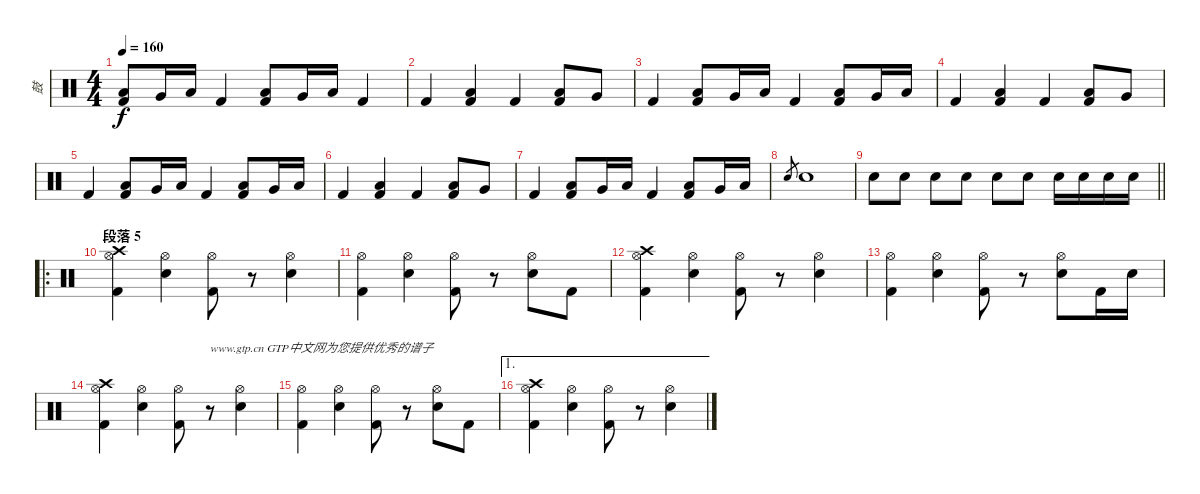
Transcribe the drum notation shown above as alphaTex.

\track ("鼓" "鼓") {instrument percussion}
\staff {score}
\articulation defaults
\ts (4 4)
\tempo 160
\clef neutral
\ks c
("Low Tom (hit)" "Kick (hit) 2").8{dy f} "Very Low Tom (hit)".16 "Low Tom (hit)".16 "Kick (hit) 2".4 ("Low Tom (hit)" "Kick (hit) 2").8 "Very Low Tom (hit)".16 "Low Tom (hit)".16 "Kick (hit) 2".4 |
"Kick (hit) 2".4 ("Low Tom (hit)" "Kick (hit) 2").4 "Kick (hit) 2".4 ("Low Tom (hit)" "Kick (hit) 2").8 "Very Low Tom (hit)".8 |
"Kick (hit) 2".4 ("Low Tom (hit)" "Kick (hit) 2").8 "Very Low Tom (hit)".16 "Low Tom (hit)".16 "Kick (hit) 2".4 ("Low Tom (hit)" "Kick (hit) 2").8 "Very Low Tom (hit)".16 "Low Tom (hit)".16 |
"Kick (hit) 2".4 ("Low Tom (hit)" "Kick (hit) 2").4 "Kick (hit) 2".4 ("Low Tom (hit)" "Kick (hit) 2").8 "Very Low Tom (hit)".8 |
"Kick (hit) 2".4 ("Low Tom (hit)" "Kick (hit) 2").8 "Very Low Tom (hit)".16 "Low Tom (hit)".16 "Kick (hit) 2".4 ("Low Tom (hit)" "Kick (hit) 2").8 "Very Low Tom (hit)".16 "Low Tom (hit)".16 |
"Kick (hit) 2".4 ("Low Tom (hit)" "Kick (hit) 2").4 "Kick (hit) 2".4 ("Low Tom (hit)" "Kick (hit) 2").8 "Very Low Tom (hit)".8 |
"Kick (hit) 2".4 ("Low Tom (hit)" "Kick (hit) 2").8 "Very Low Tom (hit)".16 "Low Tom (hit)".16 "Kick (hit) 2".4 ("Low Tom (hit)" "Kick (hit) 2").8 "Very Low Tom (hit)".16 "Low Tom (hit)".16 |
"Electric Snare (hit)".8{gr} "Electric Snare (hit)".1 |
\barLineRight lightlight "Electric Snare (hit)".8 "Electric Snare (hit)".8 "Electric Snare (hit)".8 "Electric Snare (hit)".8 "Electric Snare (hit)".8 "Electric Snare (hit)".8 "Electric Snare (hit)".16 "Electric Snare (hit)".16 "Electric Snare (hit)".16 "Electric Snare (hit)".16
|
\ro
\section ("" "段落 5")
("Crash high (hit)" "Hi-Hat (open)" "Kick (hit) 2").4 ("Hi-Hat (open)" "Electric Snare (hit)").4 ("Hi-Hat (open)" "Kick (hit) 2").8 r.8 ("Hi-Hat (open)" "Electric Snare (hit)").4 |
("Hi-Hat (open)" "Kick (hit) 2").4 ("Hi-Hat (open)" "Electric Snare (hit)").4 ("Hi-Hat (open)" "Kick (hit) 2").8 r.8 ("Hi-Hat (open)" "Electric Snare (hit)").8 "Kick (hit) 2".8 |
("Crash high (hit)" "Hi-Hat (open)" "Kick (hit) 2").4 ("Hi-Hat (open)" "Electric Snare (hit)").4 ("Hi-Hat (open)" "Kick (hit) 2").8 r.8 ("Hi-Hat (open)" "Electric Snare (hit)").4 |
("Hi-Hat (open)" "Kick (hit) 2").4 ("Hi-Hat (open)" "Electric Snare (hit)").4 ("Hi-Hat (open)" "Kick (hit) 2").8 r.8 ("Hi-Hat (open)" "Electric Snare (hit)").8 "Kick (hit) 2".16 "Electric Snare (hit)".16 |
("Crash high (hit)" "Hi-Hat (open)" "Kick (hit) 2").4 ("Hi-Hat (open)" "Electric Snare (hit)").4 ("Hi-Hat (open)" "Kick (hit) 2").8 r.8{txt "www.gtp.cn GTP中文网为您提供优秀的谱子"} ("Hi-Hat (open)" "Electric Snare (hit)").4 |
("Hi-Hat (open)" "Kick (hit) 2").4 ("Hi-Hat (open)" "Electric Snare (hit)").4 ("Hi-Hat (open)" "Kick (hit) 2").8 r.8 ("Hi-Hat (open)" "Electric Snare (hit)").8 "Kick (hit) 2".8 |
\ae 1
("Crash high (hit)" "Hi-Hat (open)" "Kick (hit) 2").4 ("Hi-Hat (open)" "Electric Snare (hit)").4 ("Hi-Hat (open)" "Kick (hit) 2").8 r.8 ("Hi-Hat (open)" "Electric Snare (hit)").4
